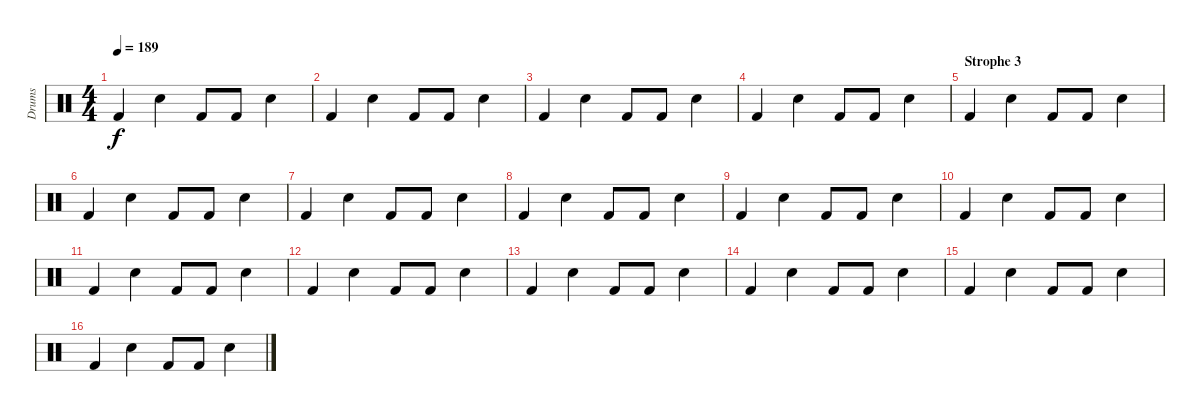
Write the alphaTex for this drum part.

\track ("Drums" "Drums") {instrument percussion}
\staff {score}
\articulation defaults
\ts (4 4)
\tempo 189
\clef neutral
\ks c "Kick (hit) 2".4{dy f} "Electric Snare (hit)".4 "Kick (hit) 2".8 "Kick (hit) 2".8 "Electric Snare (hit)".4
|
"Kick (hit) 2".4 "Electric Snare (hit)".4 "Kick (hit) 2".8 "Kick (hit) 2".8 "Electric Snare (hit)".4 |
"Kick (hit) 2".4 "Electric Snare (hit)".4 "Kick (hit) 2".8 "Kick (hit) 2".8 "Electric Snare (hit)".4 |
"Kick (hit) 2".4 "Electric Snare (hit)".4 "Kick (hit) 2".8 "Kick (hit) 2".8 "Electric Snare (hit)".4 |
\section ("" "Strophe 3")
"Kick (hit) 2".4 "Electric Snare (hit)".4 "Kick (hit) 2".8 "Kick (hit) 2".8 "Electric Snare (hit)".4 |
"Kick (hit) 2".4 "Electric Snare (hit)".4 "Kick (hit) 2".8 "Kick (hit) 2".8 "Electric Snare (hit)".4 |
"Kick (hit) 2".4 "Electric Snare (hit)".4 "Kick (hit) 2".8 "Kick (hit) 2".8 "Electric Snare (hit)".4 |
"Kick (hit) 2".4 "Electric Snare (hit)".4 "Kick (hit) 2".8 "Kick (hit) 2".8 "Electric Snare (hit)".4 |
"Kick (hit) 2".4 "Electric Snare (hit)".4 "Kick (hit) 2".8 "Kick (hit) 2".8 "Electric Snare (hit)".4 |
"Kick (hit) 2".4 "Electric Snare (hit)".4 "Kick (hit) 2".8 "Kick (hit) 2".8 "Electric Snare (hit)".4 |
"Kick (hit) 2".4 "Electric Snare (hit)".4 "Kick (hit) 2".8 "Kick (hit) 2".8 "Electric Snare (hit)".4 |
"Kick (hit) 2".4 "Electric Snare (hit)".4 "Kick (hit) 2".8 "Kick (hit) 2".8 "Electric Snare (hit)".4 |
"Kick (hit) 2".4 "Electric Snare (hit)".4 "Kick (hit) 2".8 "Kick (hit) 2".8 "Electric Snare (hit)".4 |
"Kick (hit) 2".4 "Electric Snare (hit)".4 "Kick (hit) 2".8 "Kick (hit) 2".8 "Electric Snare (hit)".4 |
"Kick (hit) 2".4 "Electric Snare (hit)".4 "Kick (hit) 2".8 "Kick (hit) 2".8 "Electric Snare (hit)".4 |
"Kick (hit) 2".4 "Electric Snare (hit)".4 "Kick (hit) 2".8 "Kick (hit) 2".8 "Electric Snare (hit)".4
